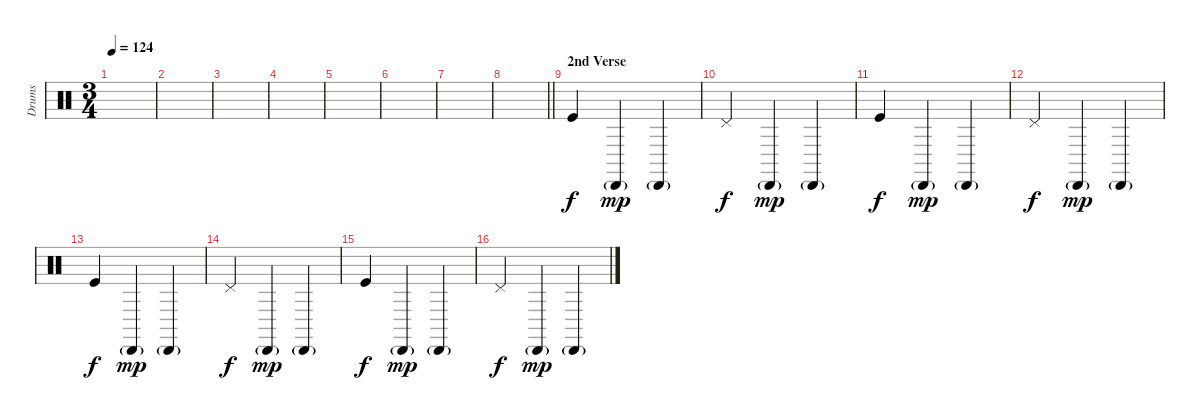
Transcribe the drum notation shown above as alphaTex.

\track ("Drums" "Drums") {instrument percussion}
\staff {score}
\articulation defaults
\ts (3 4)
\tempo 124
\clef neutral
\ks c
|
|
|
|
|
|
|
\barLineRight lightlight
|
\section ("" "2nd Verse")
"Kick (hit)".4 "Cabasa (hit)"{g}.4{dy mp} "Cabasa (hit)"{g}.4 |
"Pedal Hi-Hat (hit)".4{dy f} "Cabasa (hit)"{g}.4{dy mp} "Cabasa (hit)"{g}.4 |
"Kick (hit)".4{dy f} "Cabasa (hit)"{g}.4{dy mp} "Cabasa (hit)"{g}.4 |
"Pedal Hi-Hat (hit)".4{dy f} "Cabasa (hit)"{g}.4{dy mp} "Cabasa (hit)"{g}.4 |
"Kick (hit)".4{dy f} "Cabasa (hit)"{g}.4{dy mp} "Cabasa (hit)"{g}.4 |
"Pedal Hi-Hat (hit)".4{dy f} "Cabasa (hit)"{g}.4{dy mp} "Cabasa (hit)"{g}.4 |
"Kick (hit)".4{dy f} "Cabasa (hit)"{g}.4{dy mp} "Cabasa (hit)"{g}.4 |
"Pedal Hi-Hat (hit)".4{dy f} "Cabasa (hit)"{g}.4{dy mp} "Cabasa (hit)"{g}.4
